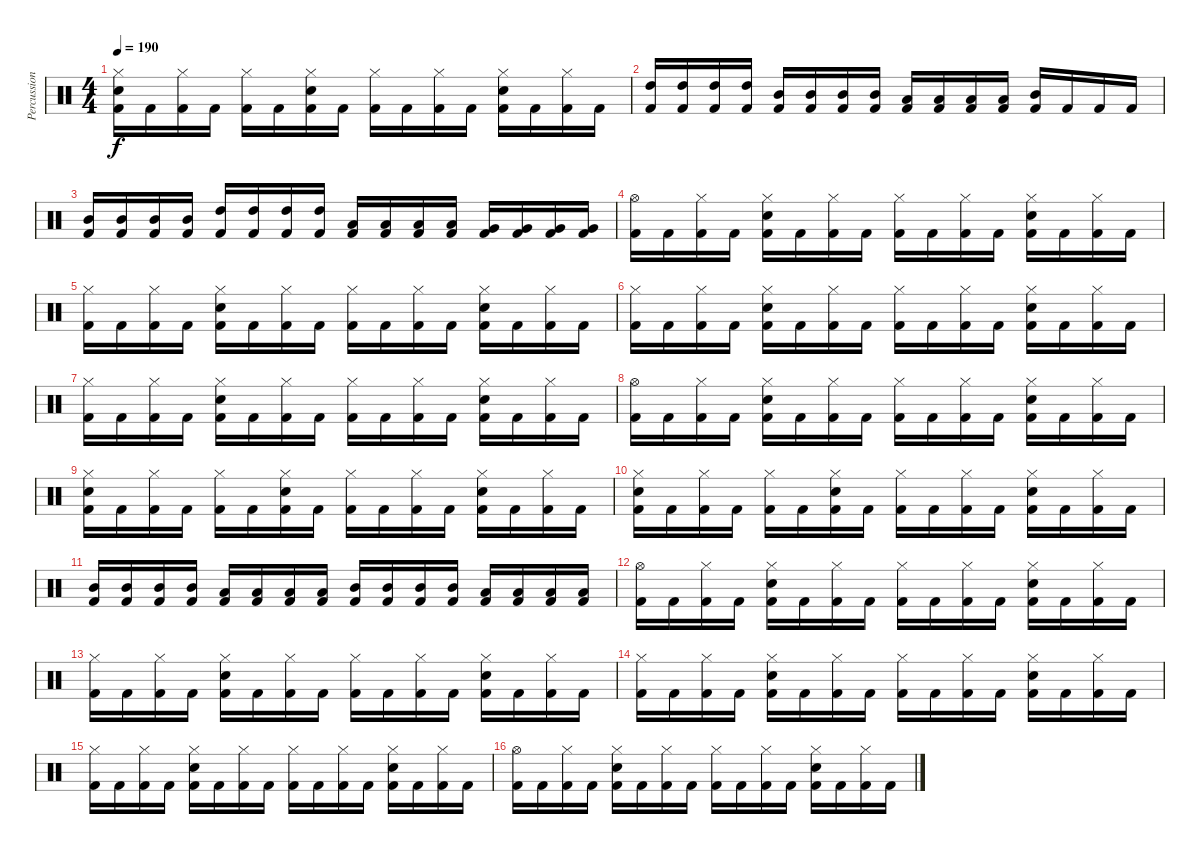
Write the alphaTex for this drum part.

\track ("Percussion" "Percussion") {instrument percussion}
\staff {score}
\articulation defaults
\ts (4 4)
\tempo 190
\clef neutral
\ks c
("Hi-Hat (closed)" "Snare (hit) 2" "Kick (hit) 2").16{dy f} "Kick (hit) 2".16 ("Hi-Hat (closed)" "Kick (hit) 2").16 "Kick (hit) 2".16 ("Hi-Hat (closed)" "Kick (hit) 2").16 "Kick (hit) 2".16 ("Hi-Hat (closed)" "Snare (hit) 2" "Kick (hit) 2").16 "Kick (hit) 2".16 ("Hi-Hat (closed)" "Kick (hit) 2").16 "Kick (hit) 2".16 ("Hi-Hat (closed)" "Kick (hit) 2").16 "Kick (hit) 2".16 ("Hi-Hat (closed)" "Snare (hit) 2" "Kick (hit) 2").16 "Kick (hit) 2".16 ("Hi-Hat (closed)" "Kick (hit) 2").16 "Kick (hit) 2".16 |
("High Tom (hit)" "Kick (hit) 2").16 ("High Tom (hit)" "Kick (hit) 2").16 ("High Tom (hit)" "Kick (hit) 2").16 ("High Tom (hit)" "Kick (hit) 2").16 ("Mid Tom (hit)" "Kick (hit) 2").16 ("Mid Tom (hit)" "Kick (hit) 2").16 ("Mid Tom (hit)" "Kick (hit) 2").16 ("Mid Tom (hit)" "Kick (hit) 2").16 ("Low Tom (hit)" "Kick (hit) 2").16 ("Low Tom (hit)" "Kick (hit) 2").16 ("Low Tom (hit)" "Kick (hit) 2").16 ("Low Tom (hit)" "Kick (hit) 2").16 ("Mid Tom (hit)" "Kick (hit) 2").16 "Kick (hit) 2".16 "Kick (hit) 2".16 "Kick (hit) 2".16 |
("Mid Tom (hit)" "Kick (hit) 2").16 ("Mid Tom (hit)" "Kick (hit) 2").16 ("Mid Tom (hit)" "Kick (hit) 2").16 ("Mid Tom (hit)" "Kick (hit) 2").16 ("High Tom (hit)" "Kick (hit) 2").16 ("High Tom (hit)" "Kick (hit) 2").16 ("High Tom (hit)" "Kick (hit) 2").16 ("High Tom (hit)" "Kick (hit) 2").16 ("Low Tom (hit)" "Kick (hit) 2").16 ("Low Tom (hit)" "Kick (hit) 2").16 ("Low Tom (hit)" "Kick (hit) 2").16 ("Low Tom (hit)" "Kick (hit) 2").16 ("Very Low Tom (hit)" "Kick (hit) 2").16 ("Very Low Tom (hit)" "Kick (hit) 2").16 ("Very Low Tom (hit)" "Kick (hit) 2").16 ("Very Low Tom (hit)" "Kick (hit) 2").16 |
\section ("" "")
("Hi-Hat (open)" "Kick (hit) 2").16 "Kick (hit) 2".16 ("Hi-Hat (closed)" "Kick (hit) 2").16 "Kick (hit) 2".16 ("Hi-Hat (closed)" "Snare (hit) 2" "Kick (hit) 2").16 "Kick (hit) 2".16 ("Hi-Hat (closed)" "Kick (hit) 2").16 "Kick (hit) 2".16 ("Hi-Hat (closed)" "Kick (hit) 2").16 "Kick (hit) 2".16 ("Hi-Hat (closed)" "Kick (hit) 2").16 "Kick (hit) 2".16 ("Hi-Hat (closed)" "Snare (hit) 2" "Kick (hit) 2").16 "Kick (hit) 2".16 ("Hi-Hat (closed)" "Kick (hit) 2").16 "Kick (hit) 2".16 |
("Hi-Hat (closed)" "Kick (hit) 2").16 "Kick (hit) 2".16 ("Hi-Hat (closed)" "Kick (hit) 2").16 "Kick (hit) 2".16 ("Hi-Hat (closed)" "Snare (hit) 2" "Kick (hit) 2").16 "Kick (hit) 2".16 ("Hi-Hat (closed)" "Kick (hit) 2").16 "Kick (hit) 2".16 ("Hi-Hat (closed)" "Kick (hit) 2").16 "Kick (hit) 2".16 ("Hi-Hat (closed)" "Kick (hit) 2").16 "Kick (hit) 2".16 ("Hi-Hat (closed)" "Snare (hit) 2" "Kick (hit) 2").16 "Kick (hit) 2".16 ("Hi-Hat (closed)" "Kick (hit) 2").16 "Kick (hit) 2".16 |
("Hi-Hat (closed)" "Kick (hit) 2").16 "Kick (hit) 2".16 ("Hi-Hat (closed)" "Kick (hit) 2").16 "Kick (hit) 2".16 ("Hi-Hat (closed)" "Snare (hit) 2" "Kick (hit) 2").16 "Kick (hit) 2".16 ("Hi-Hat (closed)" "Kick (hit) 2").16 "Kick (hit) 2".16 ("Hi-Hat (closed)" "Kick (hit) 2").16 "Kick (hit) 2".16 ("Hi-Hat (closed)" "Kick (hit) 2").16 "Kick (hit) 2".16 ("Hi-Hat (closed)" "Snare (hit) 2" "Kick (hit) 2").16 "Kick (hit) 2".16 ("Hi-Hat (closed)" "Kick (hit) 2").16 "Kick (hit) 2".16 |
("Hi-Hat (closed)" "Kick (hit) 2").16 "Kick (hit) 2".16 ("Hi-Hat (closed)" "Kick (hit) 2").16 "Kick (hit) 2".16 ("Hi-Hat (closed)" "Snare (hit) 2" "Kick (hit) 2").16 "Kick (hit) 2".16 ("Hi-Hat (closed)" "Kick (hit) 2").16 "Kick (hit) 2".16 ("Hi-Hat (closed)" "Kick (hit) 2").16 "Kick (hit) 2".16 ("Hi-Hat (closed)" "Kick (hit) 2").16 "Kick (hit) 2".16 ("Hi-Hat (closed)" "Snare (hit) 2" "Kick (hit) 2").16 "Kick (hit) 2".16 ("Hi-Hat (closed)" "Kick (hit) 2").16 "Kick (hit) 2".16 |
("Hi-Hat (open)" "Kick (hit) 2").16 "Kick (hit) 2".16 ("Hi-Hat (closed)" "Kick (hit) 2").16 "Kick (hit) 2".16 ("Hi-Hat (closed)" "Snare (hit) 2" "Kick (hit) 2").16 "Kick (hit) 2".16 ("Hi-Hat (closed)" "Kick (hit) 2").16 "Kick (hit) 2".16 ("Hi-Hat (closed)" "Kick (hit) 2").16 "Kick (hit) 2".16 ("Hi-Hat (closed)" "Kick (hit) 2").16 "Kick (hit) 2".16 ("Hi-Hat (closed)" "Snare (hit) 2" "Kick (hit) 2").16 "Kick (hit) 2".16 ("Hi-Hat (closed)" "Kick (hit) 2").16 "Kick (hit) 2".16 |
("Hi-Hat (closed)" "Snare (hit) 2" "Kick (hit) 2").16 "Kick (hit) 2".16 ("Hi-Hat (closed)" "Kick (hit) 2").16 "Kick (hit) 2".16 ("Hi-Hat (closed)" "Kick (hit) 2").16 "Kick (hit) 2".16 ("Hi-Hat (closed)" "Snare (hit) 2" "Kick (hit) 2").16 "Kick (hit) 2".16 ("Hi-Hat (closed)" "Kick (hit) 2").16 "Kick (hit) 2".16 ("Hi-Hat (closed)" "Kick (hit) 2").16 "Kick (hit) 2".16 ("Hi-Hat (closed)" "Snare (hit) 2" "Kick (hit) 2").16 "Kick (hit) 2".16 ("Hi-Hat (closed)" "Kick (hit) 2").16 "Kick (hit) 2".16 |
("Hi-Hat (closed)" "Snare (hit) 2" "Kick (hit) 2").16 "Kick (hit) 2".16 ("Hi-Hat (closed)" "Kick (hit) 2").16 "Kick (hit) 2".16 ("Hi-Hat (closed)" "Kick (hit) 2").16 "Kick (hit) 2".16 ("Hi-Hat (closed)" "Snare (hit) 2" "Kick (hit) 2").16 "Kick (hit) 2".16 ("Hi-Hat (closed)" "Kick (hit) 2").16 "Kick (hit) 2".16 ("Hi-Hat (closed)" "Kick (hit) 2").16 "Kick (hit) 2".16 ("Hi-Hat (closed)" "Snare (hit) 2" "Kick (hit) 2").16 "Kick (hit) 2".16 ("Hi-Hat (closed)" "Kick (hit) 2").16 "Kick (hit) 2".16 |
("Mid Tom (hit)" "Kick (hit) 2").16 ("Mid Tom (hit)" "Kick (hit) 2").16 ("Mid Tom (hit)" "Kick (hit) 2").16 ("Mid Tom (hit)" "Kick (hit) 2").16 ("Low Tom (hit)" "Kick (hit) 2").16 ("Low Tom (hit)" "Kick (hit) 2").16 ("Low Tom (hit)" "Kick (hit) 2").16 ("Low Tom (hit)" "Kick (hit) 2").16 ("Mid Tom (hit)" "Kick (hit) 2").16 ("Mid Tom (hit)" "Kick (hit) 2").16 ("Mid Tom (hit)" "Kick (hit) 2").16 ("Mid Tom (hit)" "Kick (hit) 2").16 ("Low Tom (hit)" "Kick (hit) 2").16 ("Low Tom (hit)" "Kick (hit) 2").16 ("Low Tom (hit)" "Kick (hit) 2").16 ("Low Tom (hit)" "Kick (hit) 2").16 |
("Hi-Hat (open)" "Kick (hit) 2").16 "Kick (hit) 2".16 ("Hi-Hat (closed)" "Kick (hit) 2").16 "Kick (hit) 2".16 ("Hi-Hat (closed)" "Snare (hit) 2" "Kick (hit) 2").16 "Kick (hit) 2".16 ("Hi-Hat (closed)" "Kick (hit) 2").16 "Kick (hit) 2".16 ("Hi-Hat (closed)" "Kick (hit) 2").16 "Kick (hit) 2".16 ("Hi-Hat (closed)" "Kick (hit) 2").16 "Kick (hit) 2".16 ("Hi-Hat (closed)" "Snare (hit) 2" "Kick (hit) 2").16 "Kick (hit) 2".16 ("Hi-Hat (closed)" "Kick (hit) 2").16 "Kick (hit) 2".16 |
("Hi-Hat (closed)" "Kick (hit) 2").16 "Kick (hit) 2".16 ("Hi-Hat (closed)" "Kick (hit) 2").16 "Kick (hit) 2".16 ("Hi-Hat (closed)" "Snare (hit) 2" "Kick (hit) 2").16 "Kick (hit) 2".16 ("Hi-Hat (closed)" "Kick (hit) 2").16 "Kick (hit) 2".16 ("Hi-Hat (closed)" "Kick (hit) 2").16 "Kick (hit) 2".16 ("Hi-Hat (closed)" "Kick (hit) 2").16 "Kick (hit) 2".16 ("Hi-Hat (closed)" "Snare (hit) 2" "Kick (hit) 2").16 "Kick (hit) 2".16 ("Hi-Hat (closed)" "Kick (hit) 2").16 "Kick (hit) 2".16 |
("Hi-Hat (closed)" "Kick (hit) 2").16 "Kick (hit) 2".16 ("Hi-Hat (closed)" "Kick (hit) 2").16 "Kick (hit) 2".16 ("Hi-Hat (closed)" "Snare (hit) 2" "Kick (hit) 2").16 "Kick (hit) 2".16 ("Hi-Hat (closed)" "Kick (hit) 2").16 "Kick (hit) 2".16 ("Hi-Hat (closed)" "Kick (hit) 2").16 "Kick (hit) 2".16 ("Hi-Hat (closed)" "Kick (hit) 2").16 "Kick (hit) 2".16 ("Hi-Hat (closed)" "Snare (hit) 2" "Kick (hit) 2").16 "Kick (hit) 2".16 ("Hi-Hat (closed)" "Kick (hit) 2").16 "Kick (hit) 2".16 |
("Hi-Hat (closed)" "Kick (hit) 2").16 "Kick (hit) 2".16 ("Hi-Hat (closed)" "Kick (hit) 2").16 "Kick (hit) 2".16 ("Hi-Hat (closed)" "Snare (hit) 2" "Kick (hit) 2").16 "Kick (hit) 2".16 ("Hi-Hat (closed)" "Kick (hit) 2").16 "Kick (hit) 2".16 ("Hi-Hat (closed)" "Kick (hit) 2").16 "Kick (hit) 2".16 ("Hi-Hat (closed)" "Kick (hit) 2").16 "Kick (hit) 2".16 ("Hi-Hat (closed)" "Snare (hit) 2" "Kick (hit) 2").16 "Kick (hit) 2".16 ("Hi-Hat (closed)" "Kick (hit) 2").16 "Kick (hit) 2".16 |
("Hi-Hat (open)" "Kick (hit) 2").16 "Kick (hit) 2".16 ("Hi-Hat (closed)" "Kick (hit) 2").16 "Kick (hit) 2".16 ("Hi-Hat (closed)" "Snare (hit) 2" "Kick (hit) 2").16 "Kick (hit) 2".16 ("Hi-Hat (closed)" "Kick (hit) 2").16 "Kick (hit) 2".16 ("Hi-Hat (closed)" "Kick (hit) 2").16 "Kick (hit) 2".16 ("Hi-Hat (closed)" "Kick (hit) 2").16 "Kick (hit) 2".16 ("Hi-Hat (closed)" "Snare (hit) 2" "Kick (hit) 2").16 "Kick (hit) 2".16 ("Hi-Hat (closed)" "Kick (hit) 2").16 "Kick (hit) 2".16
